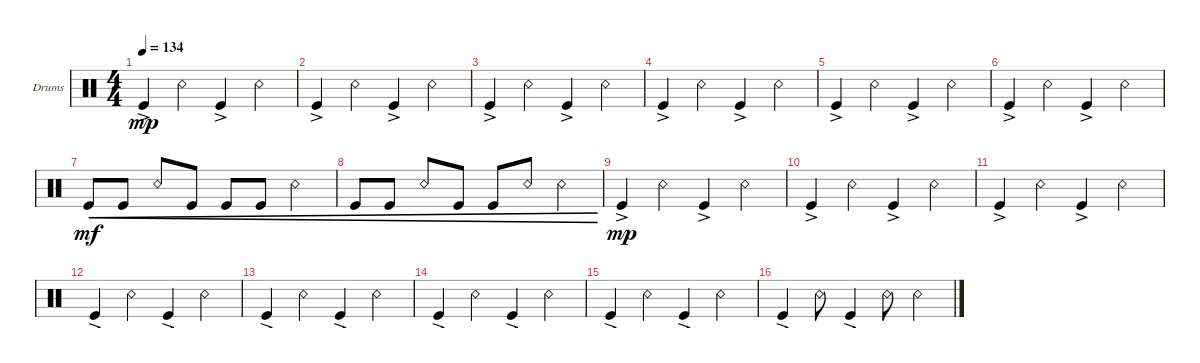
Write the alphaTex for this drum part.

\defaultSystemsLayout 4
\bracketExtendMode groupsimilarinstruments
\firstSystemTrackNameOrientation horizontal
\otherSystemsTrackNameOrientation horizontal
\track ("Drumkit" "Drums") {instrument percussion}
\staff {score}
\articulation defaults
\ts (4 4)
\tempo 134
\clef neutral
\ks c "Kick (hit)"{ac}.4{dy mp} "Snare (rim shot)".4 "Kick (hit)"{ac}.4 "Snare (rim shot)".4
|
"Kick (hit)"{ac}.4 "Snare (rim shot)".4 "Kick (hit)"{ac}.4 "Snare (rim shot)".4 |
"Kick (hit)"{ac}.4 "Snare (rim shot)".4 "Kick (hit)"{ac}.4 "Snare (rim shot)".4 |
"Kick (hit)"{ac}.4 "Snare (rim shot)".4 "Kick (hit)"{ac}.4 "Snare (rim shot)".4 |
"Kick (hit)"{ac}.4 "Snare (rim shot)".4 "Kick (hit)"{ac}.4 "Snare (rim shot)".4 |
"Kick (hit)"{ac}.4 "Snare (rim shot)".4 "Kick (hit)"{ac}.4 "Snare (rim shot)".4 |
"Kick (hit)".8{cre dy mf} "Kick (hit)".8{cre} "Snare (rim shot)".8{cre} "Kick (hit)".8{cre} "Kick (hit)".8{cre} "Kick (hit)".8{cre} "Snare (rim shot)".4{cre} |
"Kick (hit)".8{cre} "Kick (hit)".8{cre} "Snare (rim shot)".8{cre} "Kick (hit)".8{cre} "Kick (hit)".8{cre} "Snare (rim shot)".8{cre} "Snare (rim shot)".4{cre} |
"Kick (hit)"{ac}.4{dy mp} "Snare (rim shot)".4 "Kick (hit)"{ac}.4 "Snare (rim shot)".4 |
"Kick (hit)"{ac}.4 "Snare (rim shot)".4 "Kick (hit)"{ac}.4 "Snare (rim shot)".4 |
"Kick (hit)"{ac}.4 "Snare (rim shot)".4 "Kick (hit)"{ac}.4 "Snare (rim shot)".4 |
"Kick (hit)"{ac}.4 "Snare (rim shot)".4 "Kick (hit)"{ac}.4 "Snare (rim shot)".4 |
"Kick (hit)"{ac}.4 "Snare (rim shot)".4 "Kick (hit)"{ac}.4 "Snare (rim shot)".4 |
"Kick (hit)"{ac}.4 "Snare (rim shot)".4 "Kick (hit)"{ac}.4 "Snare (rim shot)".4 |
"Kick (hit)"{ac}.4 "Snare (rim shot)".4 "Kick (hit)"{ac}.4 "Snare (rim shot)".4 |
"Kick (hit)"{ac}.4 "Snare (rim shot)".8 "Kick (hit)"{ac}.4 "Snare (rim shot)".8 "Snare (rim shot)".4
